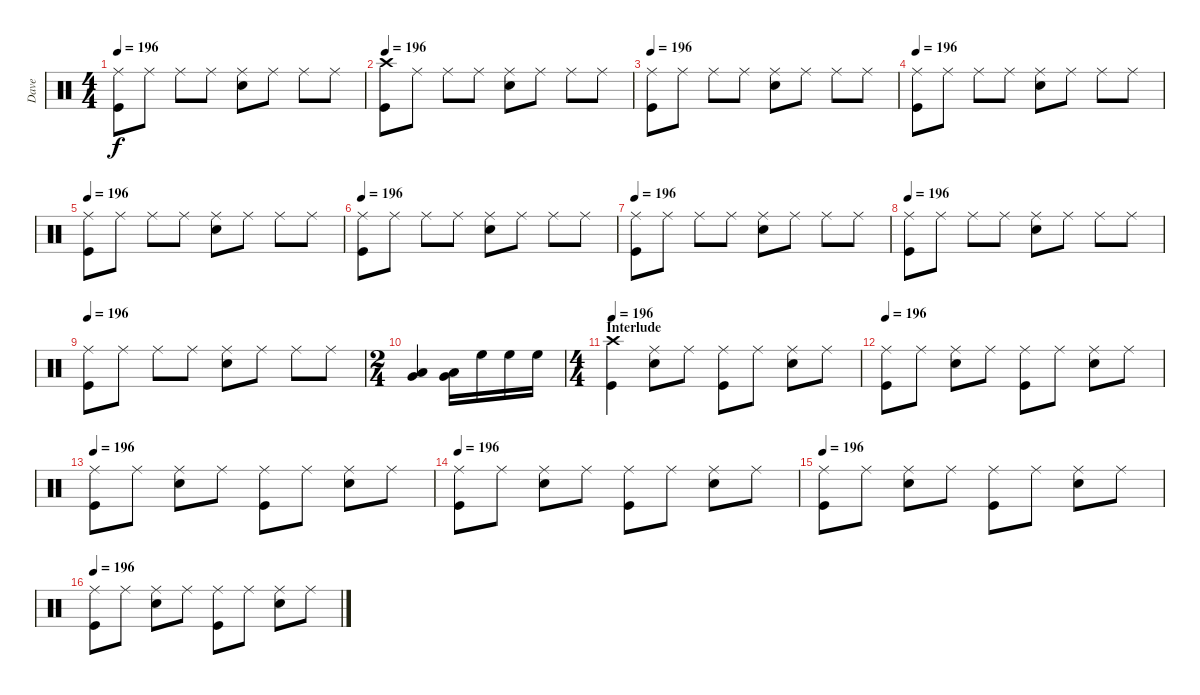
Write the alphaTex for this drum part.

\track ("Dave" "Dave") {instrument percussion}
\staff {score}
\articulation defaults
\ts (4 4)
\tempo 196
\clef neutral
\ks c
("Ride (middle)" "Kick (hit)").8{dy f} "Ride (middle)".8 "Ride (middle)".8 "Ride (middle)".8 ("Ride (middle)" "Snare (hit) 2").8 "Ride (middle)".8 "Ride (middle)".8 "Ride (middle)".8 |
\tempo 196
("Crash high (hit)" "Kick (hit)").8 "Ride (middle)".8 "Ride (middle)".8 "Ride (middle)".8 ("Ride (middle)" "Snare (hit) 2").8 "Ride (middle)".8 "Ride (middle)".8 "Ride (middle)".8 |
\tempo 196
("Ride (middle)" "Kick (hit)").8 "Ride (middle)".8 "Ride (middle)".8 "Ride (middle)".8 ("Ride (middle)" "Snare (hit) 2").8 "Ride (middle)".8 "Ride (middle)".8 "Ride (middle)".8 |
\tempo 196
("Ride (middle)" "Kick (hit)").8 "Ride (middle)".8 "Ride (middle)".8 "Ride (middle)".8 ("Ride (middle)" "Snare (hit) 2").8 "Ride (middle)".8 "Ride (middle)".8 "Ride (middle)".8 |
\tempo 196
("Ride (middle)" "Kick (hit)").8 "Ride (middle)".8 "Ride (middle)".8 "Ride (middle)".8 ("Ride (middle)" "Snare (hit) 2").8 "Ride (middle)".8 "Ride (middle)".8 "Ride (middle)".8 |
\tempo 196
("Ride (middle)" "Kick (hit)").8 "Ride (middle)".8 "Ride (middle)".8 "Ride (middle)".8 ("Ride (middle)" "Snare (hit) 2").8 "Ride (middle)".8 "Ride (middle)".8 "Ride (middle)".8 |
\tempo 196
("Ride (middle)" "Kick (hit)").8 "Ride (middle)".8 "Ride (middle)".8 "Ride (middle)".8 ("Ride (middle)" "Snare (hit) 2").8 "Ride (middle)".8 "Ride (middle)".8 "Ride (middle)".8 |
\tempo 196
("Ride (middle)" "Kick (hit)").8 "Ride (middle)".8 "Ride (middle)".8 "Ride (middle)".8 ("Ride (middle)" "Snare (hit) 2").8 "Ride (middle)".8 "Ride (middle)".8 "Ride (middle)".8 |
\tempo 196
("Ride (middle)" "Kick (hit)").8 "Ride (middle)".8 "Ride (middle)".8 "Ride (middle)".8 ("Ride (middle)" "Snare (hit) 2").8 "Ride (middle)".8 "Ride (middle)".8 "Ride (middle)".8 |
\ts (2 4)
("Very Low Tom (hit)" "Low Floor Tom (hit)").4 ("Very Low Tom (hit)" "Low Floor Tom (hit)").16 "High Floor Tom (hit)".16 "High Floor Tom (hit)".16 "High Floor Tom (hit)".16 |
\ts (4 4)
\section ("" "Interlude")
\tempo 196
("Crash high (hit)" "Kick (hit)").4 ("Ride (middle)" "Snare (hit) 2").8 "Ride (middle)".8 ("Ride (middle)" "Kick (hit)").8 "Ride (middle)".8 ("Ride (middle)" "Snare (hit) 2").8 "Ride (middle)".8 |
\tempo 196
("Ride (middle)" "Kick (hit)").8 "Ride (middle)".8 ("Ride (middle)" "Snare (hit) 2").8 "Ride (middle)".8 ("Ride (middle)" "Kick (hit)").8 "Ride (middle)".8 ("Ride (middle)" "Snare (hit) 2").8 "Ride (middle)".8 |
\tempo 196
("Ride (middle)" "Kick (hit)").8 "Ride (middle)".8 ("Ride (middle)" "Snare (hit) 2").8 "Ride (middle)".8 ("Ride (middle)" "Kick (hit)").8 "Ride (middle)".8 ("Ride (middle)" "Snare (hit) 2").8 "Ride (middle)".8 |
\tempo 196
("Ride (middle)" "Kick (hit)").8 "Ride (middle)".8 ("Ride (middle)" "Snare (hit) 2").8 "Ride (middle)".8 ("Ride (middle)" "Kick (hit)").8 "Ride (middle)".8 ("Ride (middle)" "Snare (hit) 2").8 "Ride (middle)".8 |
\tempo 196
("Ride (middle)" "Kick (hit)").8 "Ride (middle)".8 ("Ride (middle)" "Snare (hit) 2").8 "Ride (middle)".8 ("Ride (middle)" "Kick (hit)").8 "Ride (middle)".8 ("Ride (middle)" "Snare (hit) 2").8 "Ride (middle)".8 |
\tempo 196
("Ride (middle)" "Kick (hit)").8 "Ride (middle)".8 ("Ride (middle)" "Snare (hit) 2").8 "Ride (middle)".8 ("Ride (middle)" "Kick (hit)").8 "Ride (middle)".8 ("Ride (middle)" "Snare (hit) 2").8 "Ride (middle)".8
